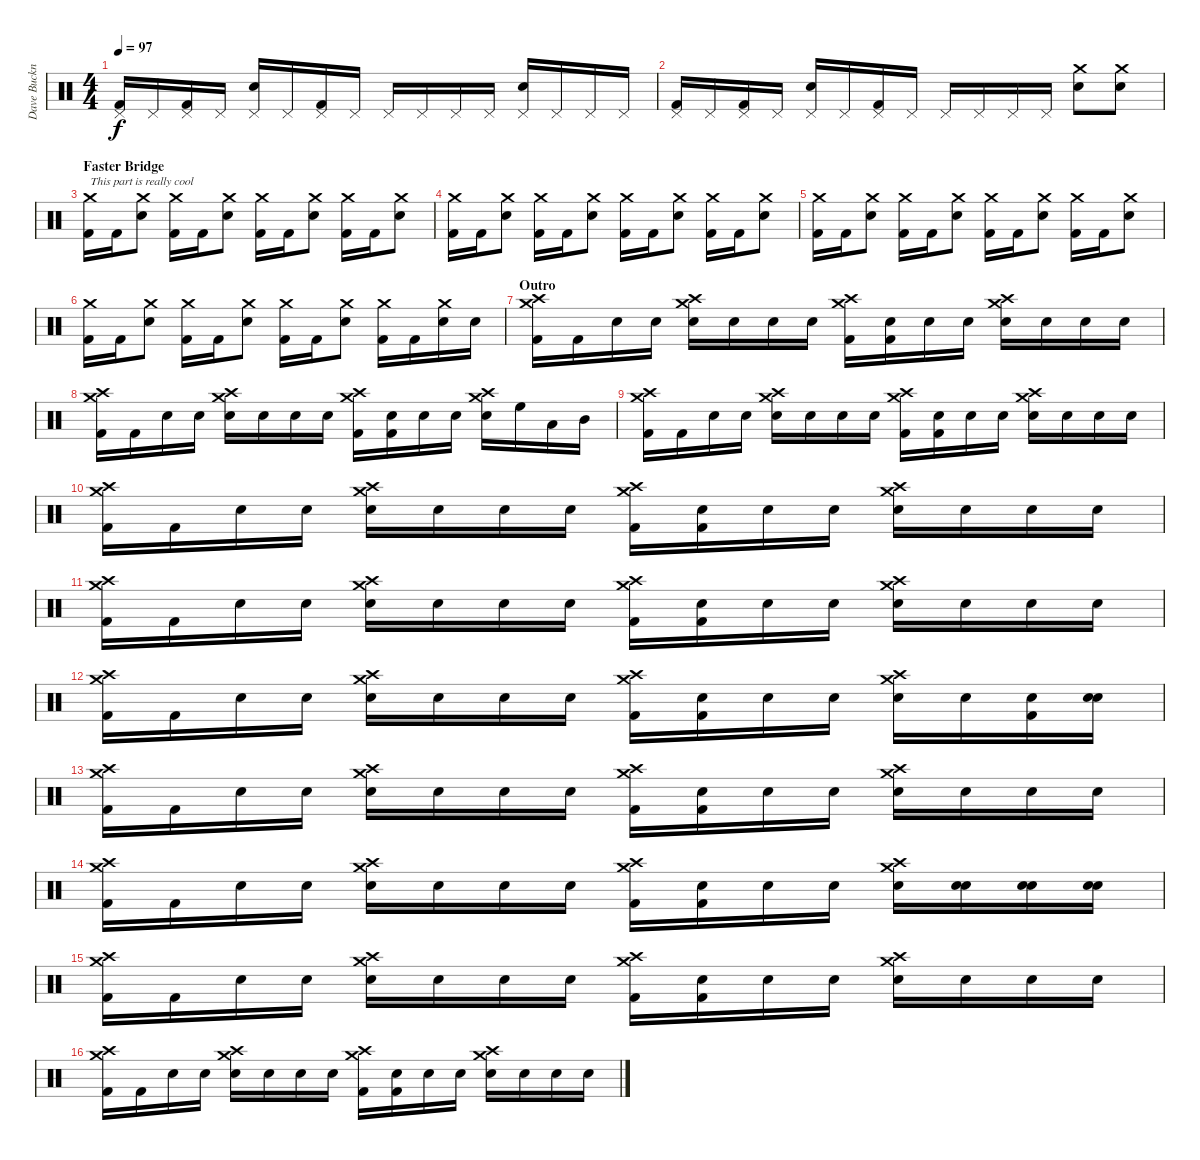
\track ("Dave Buckner" "Dave Buckn") {instrument percussion}
\staff {score}
\articulation defaults
\ts (4 4)
\tempo 97
\clef neutral
\ks c
("Pedal Hi-Hat (hit)" "Kick (hit) 2").16{dy f} "Pedal Hi-Hat (hit)".16 ("Pedal Hi-Hat (hit)" "Kick (hit) 2").16 "Pedal Hi-Hat (hit)".16 ("Pedal Hi-Hat (hit)" "Snare (hit) 2").16 "Pedal Hi-Hat (hit)".16 ("Pedal Hi-Hat (hit)" "Kick (hit) 2").16 "Pedal Hi-Hat (hit)".16 "Pedal Hi-Hat (hit)".16 "Pedal Hi-Hat (hit)".16 "Pedal Hi-Hat (hit)".16 "Pedal Hi-Hat (hit)".16 ("Pedal Hi-Hat (hit)" "Snare (hit) 2").16 "Pedal Hi-Hat (hit)".16 "Pedal Hi-Hat (hit)".16 "Pedal Hi-Hat (hit)".16 |
("Pedal Hi-Hat (hit)" "Kick (hit) 2").16 "Pedal Hi-Hat (hit)".16 ("Pedal Hi-Hat (hit)" "Kick (hit) 2").16 "Pedal Hi-Hat (hit)".16 ("Pedal Hi-Hat (hit)" "Snare (hit) 2").16 "Pedal Hi-Hat (hit)".16 ("Pedal Hi-Hat (hit)" "Kick (hit) 2").16 "Pedal Hi-Hat (hit)".16 "Pedal Hi-Hat (hit)".16 "Pedal Hi-Hat (hit)".16 "Pedal Hi-Hat (hit)".16 "Pedal Hi-Hat (hit)".16 ("Crash medium (hit)" "Snare (hit) 2").8 ("Crash medium (hit)" "Snare (hit) 2").8 |
\section ("" "Faster Bridge")
("Crash medium (hit)" "Kick (hit) 2").16{txt "This part is really cool"} "Kick (hit) 2".16 ("Crash medium (hit)" "Snare (hit) 2").8 ("Crash medium (hit)" "Kick (hit) 2").16 "Kick (hit) 2".16 ("Crash medium (hit)" "Snare (hit) 2").8 ("Crash medium (hit)" "Kick (hit) 2").16 "Kick (hit) 2".16 ("Crash medium (hit)" "Snare (hit) 2").8 ("Crash medium (hit)" "Kick (hit) 2").16 "Kick (hit) 2".16 ("Crash medium (hit)" "Snare (hit) 2").8 |
("Crash medium (hit)" "Kick (hit) 2").16 "Kick (hit) 2".16 ("Crash medium (hit)" "Snare (hit) 2").8 ("Crash medium (hit)" "Kick (hit) 2").16 "Kick (hit) 2".16 ("Crash medium (hit)" "Snare (hit) 2").8 ("Crash medium (hit)" "Kick (hit) 2").16 "Kick (hit) 2".16 ("Crash medium (hit)" "Snare (hit) 2").8 ("Crash medium (hit)" "Kick (hit) 2").16 "Kick (hit) 2".16 ("Crash medium (hit)" "Snare (hit) 2").8 |
("Crash medium (hit)" "Kick (hit) 2").16 "Kick (hit) 2".16 ("Crash medium (hit)" "Snare (hit) 2").8 ("Crash medium (hit)" "Kick (hit) 2").16 "Kick (hit) 2".16 ("Crash medium (hit)" "Snare (hit) 2").8 ("Crash medium (hit)" "Kick (hit) 2").16 "Kick (hit) 2".16 ("Crash medium (hit)" "Snare (hit) 2").8 ("Crash medium (hit)" "Kick (hit) 2").16 "Kick (hit) 2".16 ("Crash medium (hit)" "Snare (hit) 2").8 |
("Crash medium (hit)" "Kick (hit) 2").16 "Kick (hit) 2".16 ("Crash medium (hit)" "Snare (hit) 2").8 ("Crash medium (hit)" "Kick (hit) 2").16 "Kick (hit) 2".16 ("Crash medium (hit)" "Snare (hit) 2").8 ("Crash medium (hit)" "Kick (hit) 2").16 "Kick (hit) 2".16 ("Crash medium (hit)" "Snare (hit) 2").8 ("Crash medium (hit)" "Kick (hit) 2").16 "Kick (hit) 2".16 ("Crash medium (hit)" "Snare (hit) 2").16 "Snare (hit) 2".16 |
\section ("" "Outro")
("Crash medium (hit)" "Crash high (hit)" "Kick (hit) 2").16 "Kick (hit) 2".16 "Snare (hit)".16 "Snare (hit)".16 ("Crash medium (hit)" "Crash high (hit)" "Snare (hit) 2").16 "Snare (hit)".16 "Snare (hit)".16 "Snare (hit)".16 ("Crash medium (hit)" "Crash high (hit)" "Kick (hit) 2").16 ("Snare (hit)" "Kick (hit) 2").16 "Snare (hit)".16 "Snare (hit)".16 ("Crash medium (hit)" "Crash high (hit)" "Snare (hit) 2").16 "Snare (hit)".16 "Snare (hit)".16 "Snare (hit)".16 |
("Crash medium (hit)" "Crash high (hit)" "Kick (hit) 2").16 "Kick (hit) 2".16 "Snare (hit)".16 "Snare (hit)".16 ("Crash medium (hit)" "Crash high (hit)" "Snare (hit) 2").16 "Snare (hit)".16 "Snare (hit)".16 "Snare (hit)".16 ("Crash medium (hit)" "Crash high (hit)" "Kick (hit) 2").16 ("Snare (hit)" "Kick (hit) 2").16 "Snare (hit)".16 "Snare (hit)".16 ("Crash medium (hit)" "Crash high (hit)" "Snare (hit) 2").16 "High Floor Tom (hit)".16 "Low Tom (hit)".16 "Mid Tom (hit)".16 |
("Crash medium (hit)" "Crash high (hit)" "Kick (hit) 2").16 "Kick (hit) 2".16 "Snare (hit)".16 "Snare (hit)".16 ("Crash medium (hit)" "Crash high (hit)" "Snare (hit) 2").16 "Snare (hit)".16 "Snare (hit)".16 "Snare (hit)".16 ("Crash medium (hit)" "Crash high (hit)" "Kick (hit) 2").16 ("Snare (hit)" "Kick (hit) 2").16 "Snare (hit)".16 "Snare (hit)".16 ("Crash medium (hit)" "Crash high (hit)" "Snare (hit) 2").16 "Snare (hit)".16 "Snare (hit)".16 "Snare (hit)".16 |
("Crash medium (hit)" "Crash high (hit)" "Kick (hit) 2").16 "Kick (hit) 2".16 "Snare (hit)".16 "Snare (hit)".16 ("Crash medium (hit)" "Crash high (hit)" "Snare (hit) 2").16 "Snare (hit)".16 "Snare (hit)".16 "Snare (hit)".16 ("Crash medium (hit)" "Crash high (hit)" "Kick (hit) 2").16 ("Snare (hit)" "Kick (hit) 2").16 "Snare (hit)".16 "Snare (hit)".16 ("Crash medium (hit)" "Crash high (hit)" "Snare (hit) 2").16 "Snare (hit) 2".16 "Snare (hit) 2".16 "Snare (hit) 2".16 |
("Crash medium (hit)" "Crash high (hit)" "Kick (hit) 2").16 "Kick (hit) 2".16 "Snare (hit)".16 "Snare (hit)".16 ("Crash medium (hit)" "Crash high (hit)" "Snare (hit) 2").16 "Snare (hit)".16 "Snare (hit)".16 "Snare (hit)".16 ("Crash medium (hit)" "Crash high (hit)" "Kick (hit) 2").16 ("Snare (hit)" "Kick (hit) 2").16 "Snare (hit)".16 "Snare (hit)".16 ("Crash medium (hit)" "Crash high (hit)" "Snare (hit) 2").16 "Snare (hit)".16 "Snare (hit)".16 "Snare (hit)".16 |
("Crash medium (hit)" "Crash high (hit)" "Kick (hit) 2").16 "Kick (hit) 2".16 "Snare (hit)".16 "Snare (hit)".16 ("Crash medium (hit)" "Crash high (hit)" "Snare (hit) 2").16 "Snare (hit)".16 "Snare (hit)".16 "Snare (hit)".16 ("Crash medium (hit)" "Crash high (hit)" "Kick (hit) 2").16 ("Snare (hit)" "Kick (hit) 2").16 "Snare (hit)".16 "Snare (hit)".16 ("Crash medium (hit)" "Crash high (hit)" "Snare (hit) 2").16 "Snare (hit)".16 ("Snare (hit)" "Kick (hit) 2").16 ("Snare (hit)" "Snare (hit) 2").16 |
("Crash medium (hit)" "Crash high (hit)" "Kick (hit) 2").16 "Kick (hit) 2".16 "Snare (hit)".16 "Snare (hit)".16 ("Crash medium (hit)" "Crash high (hit)" "Snare (hit) 2").16 "Snare (hit)".16 "Snare (hit)".16 "Snare (hit)".16 ("Crash medium (hit)" "Crash high (hit)" "Kick (hit) 2").16 ("Snare (hit)" "Kick (hit) 2").16 "Snare (hit)".16 "Snare (hit)".16 ("Crash medium (hit)" "Crash high (hit)" "Snare (hit) 2").16 "Snare (hit)".16 "Snare (hit)".16 "Snare (hit)".16 |
("Crash medium (hit)" "Crash high (hit)" "Kick (hit) 2").16 "Kick (hit) 2".16 "Snare (hit)".16 "Snare (hit)".16 ("Crash medium (hit)" "Crash high (hit)" "Snare (hit) 2").16 "Snare (hit)".16 "Snare (hit)".16 "Snare (hit)".16 ("Crash medium (hit)" "Crash high (hit)" "Kick (hit) 2").16 ("Snare (hit)" "Kick (hit) 2").16 "Snare (hit)".16 "Snare (hit)".16 ("Crash medium (hit)" "Crash high (hit)" "Snare (hit) 2").16 ("Snare (hit)" "Snare (hit) 2").16 ("Snare (hit)" "Snare (hit) 2").16 ("Snare (hit)" "Snare (hit) 2").16 |
("Crash medium (hit)" "Crash high (hit)" "Kick (hit) 2").16 "Kick (hit) 2".16 "Snare (hit)".16 "Snare (hit)".16 ("Crash medium (hit)" "Crash high (hit)" "Snare (hit) 2").16 "Snare (hit)".16 "Snare (hit)".16 "Snare (hit)".16 ("Crash medium (hit)" "Crash high (hit)" "Kick (hit) 2").16 ("Snare (hit)" "Kick (hit) 2").16 "Snare (hit)".16 "Snare (hit)".16 ("Crash medium (hit)" "Crash high (hit)" "Snare (hit) 2").16 "Snare (hit)".16 "Snare (hit)".16 "Snare (hit)".16 |
("Crash medium (hit)" "Crash high (hit)" "Kick (hit) 2").16 "Kick (hit) 2".16 "Snare (hit)".16 "Snare (hit)".16 ("Crash medium (hit)" "Crash high (hit)" "Snare (hit) 2").16 "Snare (hit)".16 "Snare (hit)".16 "Snare (hit)".16 ("Crash medium (hit)" "Crash high (hit)" "Kick (hit) 2").16 ("Snare (hit)" "Kick (hit) 2").16 "Snare (hit)".16 "Snare (hit)".16 ("Crash medium (hit)" "Crash high (hit)" "Snare (hit) 2").16 "Snare (hit)".16 "Snare (hit)".16 "Snare (hit)".16
